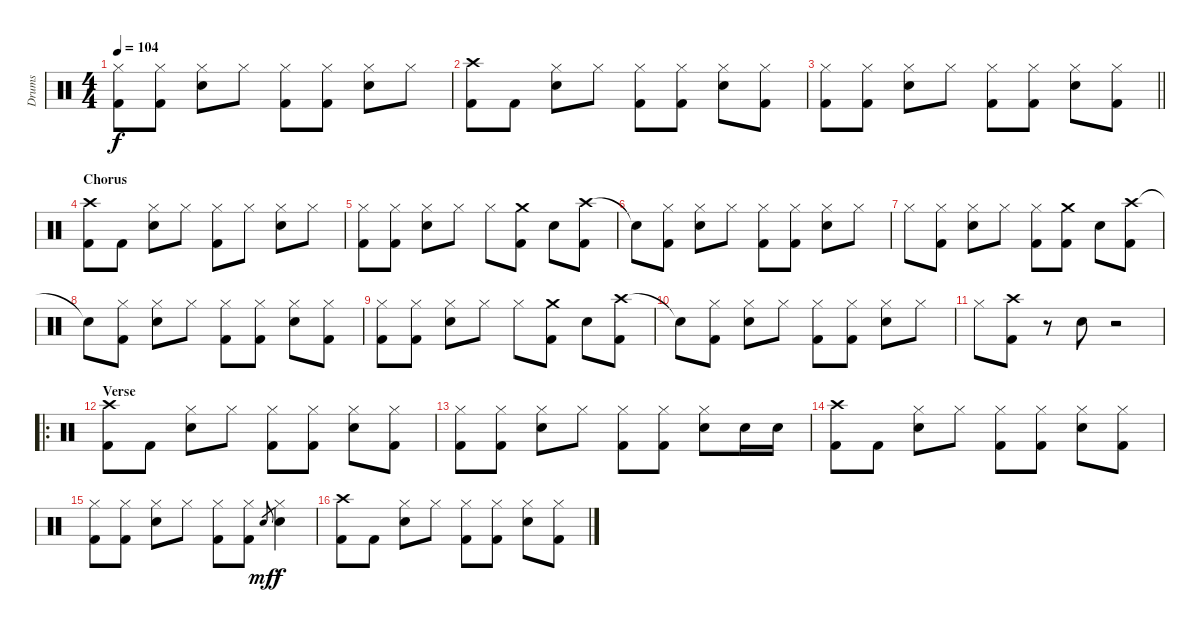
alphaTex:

\track ("Drums" "Drums") {instrument percussion}
\staff {score}
\articulation defaults
\ts (4 4)
\tempo 104
\clef neutral
\ks c
("Hi-Hat (closed)" "Kick (hit) 2").8{dy f} ("Hi-Hat (closed)" "Kick (hit) 2").8 ("Hi-Hat (closed)" "Electric Snare (hit)").8 "Hi-Hat (closed)".8 ("Hi-Hat (closed)" "Kick (hit) 2").8 ("Hi-Hat (closed)" "Kick (hit) 2").8 ("Hi-Hat (closed)" "Electric Snare (hit)").8 "Hi-Hat (closed)".8 |
("Crash high (hit)" "Kick (hit) 2").8 "Kick (hit) 2".8 ("Hi-Hat (closed)" "Electric Snare (hit)").8 "Hi-Hat (closed)".8 ("Hi-Hat (closed)" "Kick (hit) 2").8 ("Hi-Hat (closed)" "Kick (hit) 2").8 ("Hi-Hat (closed)" "Electric Snare (hit)").8 ("Hi-Hat (closed)" "Kick (hit) 2").8 |
\barLineRight lightlight
("Hi-Hat (closed)" "Kick (hit) 2").8 ("Hi-Hat (closed)" "Kick (hit) 2").8 ("Hi-Hat (closed)" "Electric Snare (hit)").8 "Hi-Hat (closed)".8 ("Hi-Hat (closed)" "Kick (hit) 2").8 ("Hi-Hat (closed)" "Kick (hit) 2").8 ("Hi-Hat (closed)" "Electric Snare (hit)").8 ("Hi-Hat (closed)" "Kick (hit) 2").8 |
\section ("" "Chorus")
("Crash high (hit)" "Kick (hit) 2").8 "Kick (hit) 2".8 ("Hi-Hat (closed)" "Electric Snare (hit)").8 "Hi-Hat (closed)".8 ("Hi-Hat (closed)" "Kick (hit) 2").8 "Hi-Hat (closed)".8 ("Hi-Hat (closed)" "Electric Snare (hit)").8 "Hi-Hat (closed)".8 |
("Hi-Hat (closed)" "Kick (hit) 2").8 ("Hi-Hat (closed)" "Kick (hit) 2").8 ("Hi-Hat (closed)" "Electric Snare (hit)").8 "Hi-Hat (closed)".8 "Hi-Hat (closed)".8 ("Crash medium (hit)" "Kick (hit) 2").8 "Electric Snare (hit)".8 ("Crash high (hit)" "Kick (hit) 2").8 |
"Snare (hit)"{t}.8 ("Hi-Hat (closed)" "Kick (hit) 2").8 ("Hi-Hat (closed)" "Electric Snare (hit)").8 "Hi-Hat (closed)".8 ("Hi-Hat (closed)" "Kick (hit) 2").8 ("Hi-Hat (closed)" "Kick (hit) 2").8 ("Hi-Hat (closed)" "Electric Snare (hit)").8 "Hi-Hat (closed)".8 |
"Hi-Hat (closed)".8 ("Hi-Hat (closed)" "Kick (hit) 2").8 ("Hi-Hat (closed)" "Electric Snare (hit)").8 "Hi-Hat (closed)".8 ("Hi-Hat (closed)" "Kick (hit) 2").8 ("Crash medium (hit)" "Kick (hit) 2").8 "Electric Snare (hit)".8 ("Crash high (hit)" "Kick (hit) 2").8 |
"Snare (hit)"{t}.8 ("Hi-Hat (closed)" "Kick (hit) 2").8 ("Hi-Hat (closed)" "Electric Snare (hit)").8 "Hi-Hat (closed)".8 ("Hi-Hat (closed)" "Kick (hit) 2").8 ("Hi-Hat (closed)" "Kick (hit) 2").8 ("Hi-Hat (closed)" "Electric Snare (hit)").8 ("Hi-Hat (closed)" "Kick (hit) 2").8 |
("Hi-Hat (closed)" "Kick (hit) 2").8 ("Hi-Hat (closed)" "Kick (hit) 2").8 ("Hi-Hat (closed)" "Electric Snare (hit)").8 "Hi-Hat (closed)".8 "Hi-Hat (closed)".8 ("Crash medium (hit)" "Kick (hit) 2").8 "Electric Snare (hit)".8 ("Crash high (hit)" "Kick (hit) 2").8 |
"Snare (hit)"{t}.8 ("Hi-Hat (closed)" "Kick (hit) 2").8 ("Hi-Hat (closed)" "Electric Snare (hit)").8 "Hi-Hat (closed)".8 ("Hi-Hat (closed)" "Kick (hit) 2").8 ("Hi-Hat (closed)" "Kick (hit) 2").8 ("Hi-Hat (closed)" "Electric Snare (hit)").8 "Hi-Hat (closed)".8 |
"Hi-Hat (closed)".8 ("Crash high (hit)" "Kick (hit) 2").8 r.8 "Electric Snare (hit)".8 r.2 |
\ro
\section ("" "Verse")
("Crash high (hit)" "Kick (hit) 2").8 "Kick (hit) 2".8 ("Hi-Hat (closed)" "Electric Snare (hit)").8 "Hi-Hat (closed)".8 ("Hi-Hat (closed)" "Kick (hit) 2").8 ("Hi-Hat (closed)" "Kick (hit) 2").8 ("Hi-Hat (closed)" "Electric Snare (hit)").8 ("Hi-Hat (closed)" "Kick (hit) 2").8 |
("Hi-Hat (closed)" "Kick (hit) 2").8 ("Hi-Hat (closed)" "Kick (hit) 2").8 ("Hi-Hat (closed)" "Electric Snare (hit)").8 "Hi-Hat (closed)".8 ("Hi-Hat (closed)" "Kick (hit) 2").8 ("Hi-Hat (closed)" "Kick (hit) 2").8 ("Hi-Hat (closed)" "Electric Snare (hit)").8 "Electric Snare (hit)".16 "Electric Snare (hit)".16 |
("Crash high (hit)" "Kick (hit) 2").8 "Kick (hit) 2".8 ("Hi-Hat (closed)" "Electric Snare (hit)").8 "Hi-Hat (closed)".8 ("Hi-Hat (closed)" "Kick (hit) 2").8 ("Hi-Hat (closed)" "Kick (hit) 2").8 ("Hi-Hat (closed)" "Electric Snare (hit)").8 ("Hi-Hat (closed)" "Kick (hit) 2").8 |
("Hi-Hat (closed)" "Kick (hit) 2").8 ("Hi-Hat (closed)" "Kick (hit) 2").8 ("Hi-Hat (closed)" "Electric Snare (hit)").8 "Hi-Hat (closed)".8 ("Hi-Hat (closed)" "Kick (hit) 2").8 ("Hi-Hat (closed)" "Kick (hit) 2").8 "Electric Snare (hit)".8{gr dy mf} ("Hi-Hat (closed)" "Electric Snare (hit)").4{dy f} |
("Crash high (hit)" "Kick (hit) 2").8 "Kick (hit) 2".8 ("Hi-Hat (closed)" "Electric Snare (hit)").8 "Hi-Hat (closed)".8 ("Hi-Hat (closed)" "Kick (hit) 2").8 ("Hi-Hat (closed)" "Kick (hit) 2").8 ("Hi-Hat (closed)" "Electric Snare (hit)").8 ("Hi-Hat (closed)" "Kick (hit) 2").8
